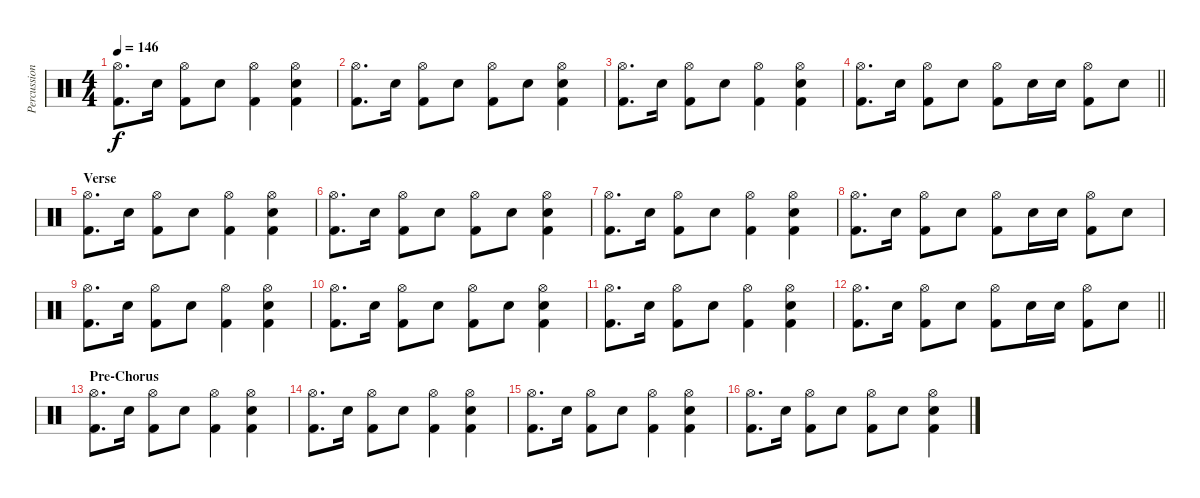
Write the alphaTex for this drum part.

\track ("Percussion" "Percussion") {instrument percussion}
\staff {score}
\articulation defaults
\ts (4 4)
\tempo 146
\clef neutral
\ks c
("Hi-Hat (open)" "Kick (hit) 2").8{d dy f} "Electric Snare (hit)".16 ("Hi-Hat (open)" "Kick (hit) 2").8 "Electric Snare (hit)".8 ("Hi-Hat (open)" "Kick (hit) 2").4 ("Hi-Hat (open)" "Electric Snare (hit)" "Kick (hit) 2").4 |
("Hi-Hat (open)" "Kick (hit) 2").8{d} "Electric Snare (hit)".16 ("Hi-Hat (open)" "Kick (hit) 2").8 "Electric Snare (hit)".8 ("Hi-Hat (open)" "Kick (hit) 2").8 "Electric Snare (hit)".8 ("Hi-Hat (open)" "Electric Snare (hit)" "Kick (hit) 2").4 |
("Hi-Hat (open)" "Kick (hit) 2").8{d} "Electric Snare (hit)".16 ("Hi-Hat (open)" "Kick (hit) 2").8 "Electric Snare (hit)".8 ("Hi-Hat (open)" "Kick (hit) 2").4 ("Hi-Hat (open)" "Electric Snare (hit)" "Kick (hit) 2").4 |
\barLineRight lightlight
("Hi-Hat (open)" "Kick (hit) 2").8{d} "Electric Snare (hit)".16 ("Hi-Hat (open)" "Kick (hit) 2").8 "Electric Snare (hit)".8 ("Hi-Hat (open)" "Kick (hit) 2").8 "Electric Snare (hit)".16 "Electric Snare (hit)".16 ("Hi-Hat (open)" "Kick (hit) 2").8 "Electric Snare (hit)".8 |
\section ("" "Verse")
("Hi-Hat (open)" "Kick (hit) 2").8{d} "Electric Snare (hit)".16 ("Hi-Hat (open)" "Kick (hit) 2").8 "Electric Snare (hit)".8 ("Hi-Hat (open)" "Kick (hit) 2").4 ("Hi-Hat (open)" "Electric Snare (hit)" "Kick (hit) 2").4 |
("Hi-Hat (open)" "Kick (hit) 2").8{d} "Electric Snare (hit)".16 ("Hi-Hat (open)" "Kick (hit) 2").8 "Electric Snare (hit)".8 ("Hi-Hat (open)" "Kick (hit) 2").8 "Electric Snare (hit)".8 ("Hi-Hat (open)" "Electric Snare (hit)" "Kick (hit) 2").4 |
("Hi-Hat (open)" "Kick (hit) 2").8{d} "Electric Snare (hit)".16 ("Hi-Hat (open)" "Kick (hit) 2").8 "Electric Snare (hit)".8 ("Hi-Hat (open)" "Kick (hit) 2").4 ("Hi-Hat (open)" "Electric Snare (hit)" "Kick (hit) 2").4 |
("Hi-Hat (open)" "Kick (hit) 2").8{d} "Electric Snare (hit)".16 ("Hi-Hat (open)" "Kick (hit) 2").8 "Electric Snare (hit)".8 ("Hi-Hat (open)" "Kick (hit) 2").8 "Electric Snare (hit)".16 "Electric Snare (hit)".16 ("Hi-Hat (open)" "Kick (hit) 2").8 "Electric Snare (hit)".8 |
("Hi-Hat (open)" "Kick (hit) 2").8{d} "Electric Snare (hit)".16 ("Hi-Hat (open)" "Kick (hit) 2").8 "Electric Snare (hit)".8 ("Hi-Hat (open)" "Kick (hit) 2").4 ("Hi-Hat (open)" "Electric Snare (hit)" "Kick (hit) 2").4 |
("Hi-Hat (open)" "Kick (hit) 2").8{d} "Electric Snare (hit)".16 ("Hi-Hat (open)" "Kick (hit) 2").8 "Electric Snare (hit)".8 ("Hi-Hat (open)" "Kick (hit) 2").8 "Electric Snare (hit)".8 ("Hi-Hat (open)" "Electric Snare (hit)" "Kick (hit) 2").4 |
("Hi-Hat (open)" "Kick (hit) 2").8{d} "Electric Snare (hit)".16 ("Hi-Hat (open)" "Kick (hit) 2").8 "Electric Snare (hit)".8 ("Hi-Hat (open)" "Kick (hit) 2").4 ("Hi-Hat (open)" "Electric Snare (hit)" "Kick (hit) 2").4 |
\barLineRight lightlight
("Hi-Hat (open)" "Kick (hit) 2").8{d} "Electric Snare (hit)".16 ("Hi-Hat (open)" "Kick (hit) 2").8 "Electric Snare (hit)".8 ("Hi-Hat (open)" "Kick (hit) 2").8 "Electric Snare (hit)".16 "Electric Snare (hit)".16 ("Hi-Hat (open)" "Kick (hit) 2").8 "Electric Snare (hit)".8 |
\section ("" "Pre-Chorus")
("Hi-Hat (open)" "Kick (hit) 2").8{d} "Electric Snare (hit)".16 ("Hi-Hat (open)" "Kick (hit) 2").8 "Electric Snare (hit)".8 ("Hi-Hat (open)" "Kick (hit) 2").4 ("Hi-Hat (open)" "Electric Snare (hit)" "Kick (hit) 2").4 |
("Hi-Hat (open)" "Kick (hit) 2").8{d} "Electric Snare (hit)".16 ("Hi-Hat (open)" "Kick (hit) 2").8 "Electric Snare (hit)".8 ("Hi-Hat (open)" "Kick (hit) 2").4 ("Hi-Hat (open)" "Electric Snare (hit)" "Kick (hit) 2").4 |
("Hi-Hat (open)" "Kick (hit) 2").8{d} "Electric Snare (hit)".16 ("Hi-Hat (open)" "Kick (hit) 2").8 "Electric Snare (hit)".8 ("Hi-Hat (open)" "Kick (hit) 2").4 ("Hi-Hat (open)" "Electric Snare (hit)" "Kick (hit) 2").4 |
("Hi-Hat (open)" "Kick (hit) 2").8{d} "Electric Snare (hit)".16 ("Hi-Hat (open)" "Kick (hit) 2").8 "Electric Snare (hit)".8 ("Hi-Hat (open)" "Kick (hit) 2").8 "Electric Snare (hit)".8 ("Hi-Hat (open)" "Electric Snare (hit)" "Kick (hit) 2").4
